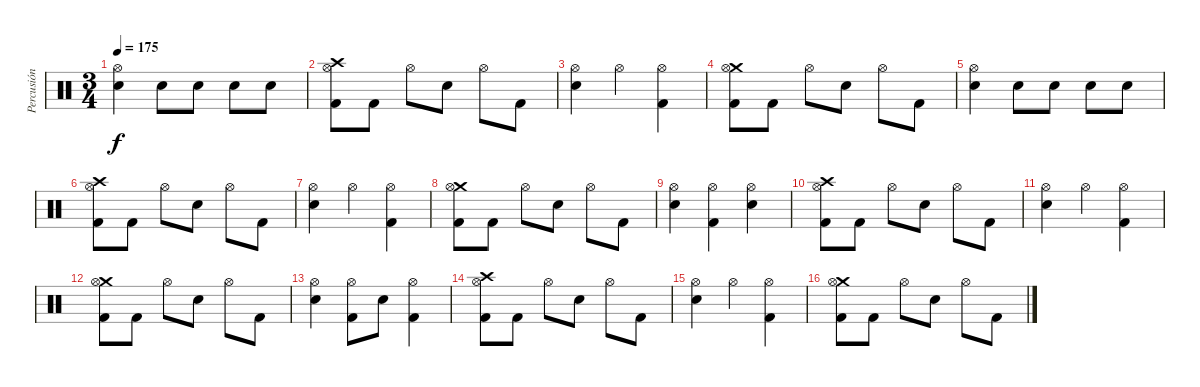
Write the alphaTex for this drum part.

\track ("Percusión" "Percusión") {instrument percussion}
\staff {score}
\articulation defaults
\ts (3 4)
\tempo 175
\clef neutral
\ks c
("Hi-Hat (open)" "Snare (hit) 2").4{dy f} "Snare (hit) 2".8 "Snare (hit) 2".8 "Snare (hit) 2".8 "Snare (hit) 2".8 |
("Crash high (hit)" "Hi-Hat (open)" "Kick (hit) 2").8 "Kick (hit) 2".8 "Hi-Hat (open)".8 "Snare (hit) 2".8 "Hi-Hat (open)".8 "Kick (hit) 2".8 |
("Hi-Hat (open)" "Snare (hit) 2").4 "Hi-Hat (open)".4 ("Hi-Hat (open)" "Kick (hit) 2").4 |
("Crash medium (hit)" "Hi-Hat (open)" "Kick (hit) 2").8 "Kick (hit) 2".8 "Hi-Hat (open)".8 "Snare (hit) 2".8 "Hi-Hat (open)".8 "Kick (hit) 2".8 |
("Hi-Hat (open)" "Snare (hit) 2").4 "Snare (hit) 2".8 "Snare (hit) 2".8 "Snare (hit) 2".8 "Snare (hit) 2".8 |
("Crash high (hit)" "Hi-Hat (open)" "Kick (hit) 2").8 "Kick (hit) 2".8 "Hi-Hat (open)".8 "Snare (hit) 2".8 "Hi-Hat (open)".8 "Kick (hit) 2".8 |
("Hi-Hat (open)" "Snare (hit) 2").4 "Hi-Hat (open)".4 ("Hi-Hat (open)" "Kick (hit) 2").4 |
("Crash medium (hit)" "Hi-Hat (open)" "Kick (hit) 2").8 "Kick (hit) 2".8 "Hi-Hat (open)".8 "Snare (hit) 2".8 "Hi-Hat (open)".8 "Kick (hit) 2".8 |
("Hi-Hat (open)" "Snare (hit) 2").4 ("Hi-Hat (open)" "Kick (hit) 2").4 ("Hi-Hat (open)" "Snare (hit) 2").4 |
("Crash high (hit)" "Hi-Hat (open)" "Kick (hit) 2").8 "Kick (hit) 2".8 "Hi-Hat (open)".8 "Snare (hit) 2".8 "Hi-Hat (open)".8 "Kick (hit) 2".8 |
("Hi-Hat (open)" "Snare (hit) 2").4 "Hi-Hat (open)".4 ("Hi-Hat (open)" "Kick (hit) 2").4 |
("Crash medium (hit)" "Hi-Hat (open)" "Kick (hit) 2").8 "Kick (hit) 2".8 "Hi-Hat (open)".8 "Snare (hit) 2".8 "Hi-Hat (open)".8 "Kick (hit) 2".8 |
("Hi-Hat (open)" "Snare (hit) 2").4 ("Hi-Hat (open)" "Kick (hit) 2").8 "Snare (hit) 2".8 ("Hi-Hat (open)" "Kick (hit) 2").4 |
("Crash high (hit)" "Hi-Hat (open)" "Kick (hit) 2").8 "Kick (hit) 2".8 "Hi-Hat (open)".8 "Snare (hit) 2".8 "Hi-Hat (open)".8 "Kick (hit) 2".8 |
("Hi-Hat (open)" "Snare (hit) 2").4 "Hi-Hat (open)".4 ("Hi-Hat (open)" "Kick (hit) 2").4 |
("Crash medium (hit)" "Hi-Hat (open)" "Kick (hit) 2").8 "Kick (hit) 2".8 "Hi-Hat (open)".8 "Snare (hit) 2".8 "Hi-Hat (open)".8 "Kick (hit) 2".8
